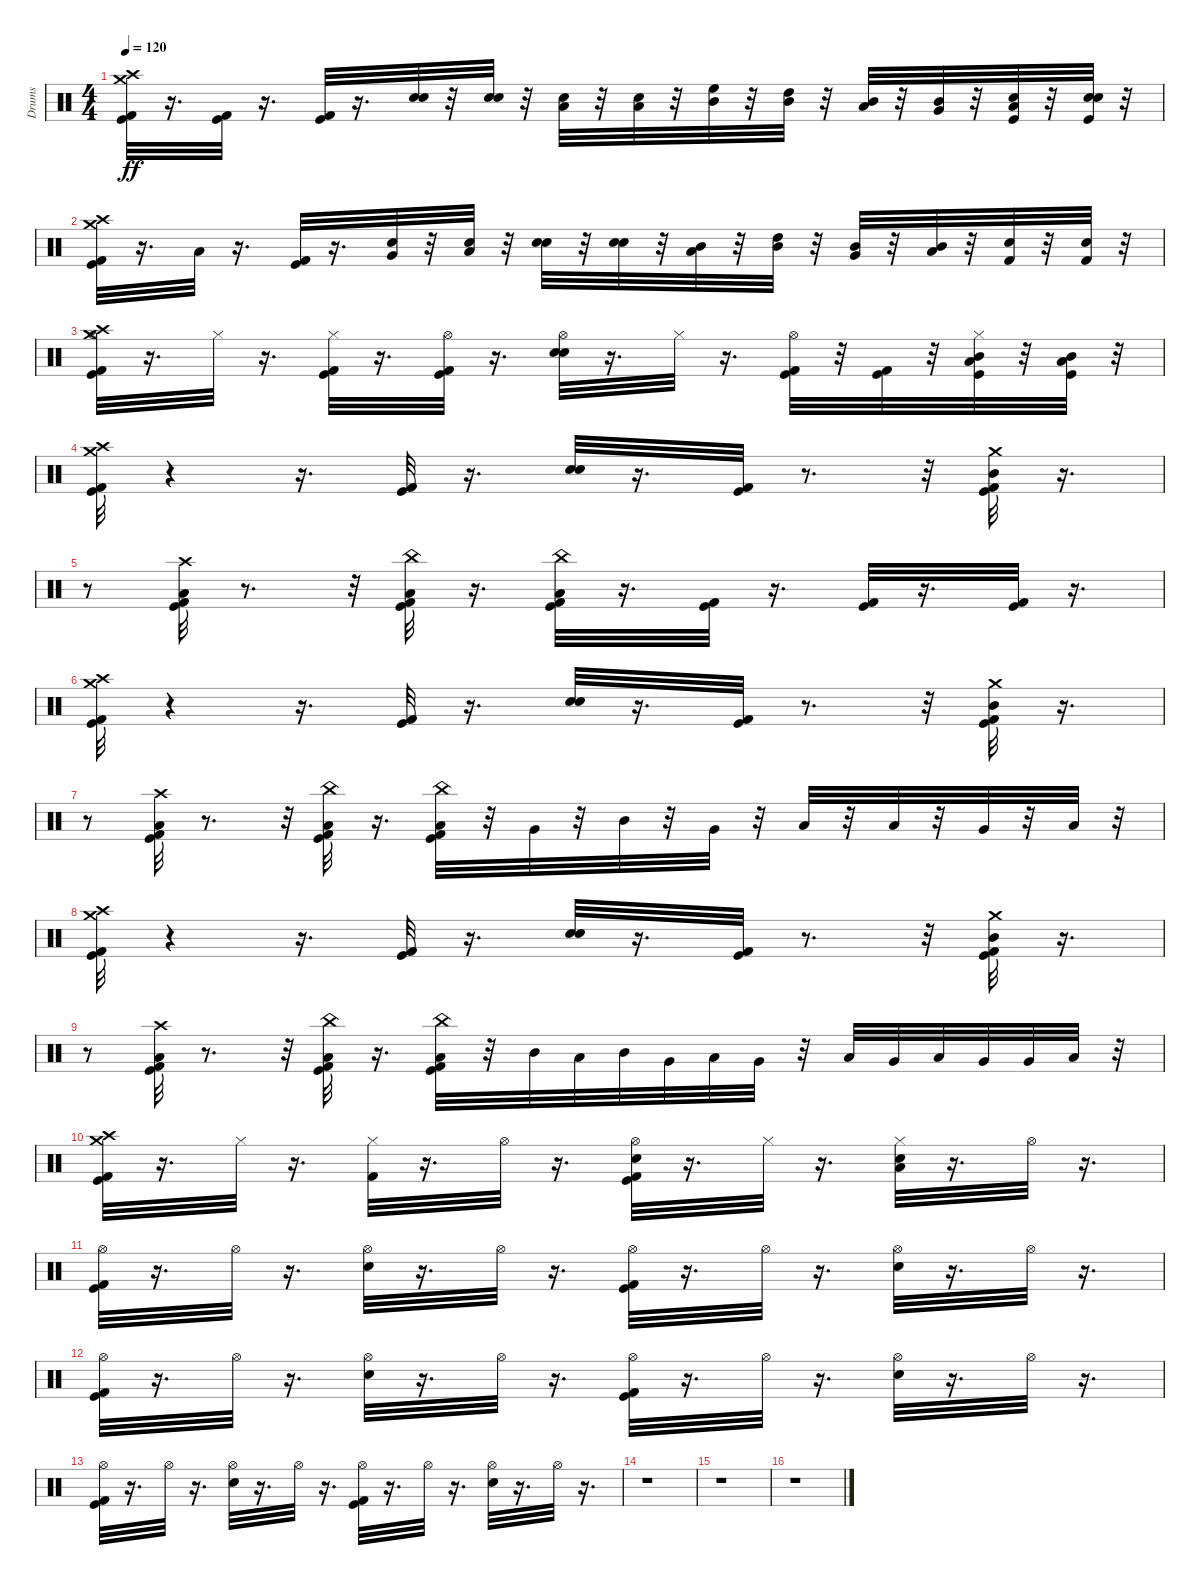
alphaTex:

\track ("Drums" "Drums") {instrument percussion}
\staff {score}
\articulation defaults
\ts (4 4)
\tempo 120
\clef neutral
\ks c
("Crash medium (hit)" "Crash high (hit)" "Kick (hit)" "Kick (hit) 2").32{dy ff} r.16{d} ("Kick (hit) 2" "Kick (hit)").32 r.16{d} ("Kick (hit) 2" "Kick (hit)").32 r.16{d} ("Electric Snare (hit)" "Snare (hit) 2").32 r.32 ("Snare (hit) 2" "Electric Snare (hit)").32 r.32 ("Low Floor Tom (hit)" "Snare (hit) 2").32 r.32 ("Low Floor Tom (hit)" "Snare (hit) 2").32 r.32 ("High Floor Tom (hit)" "Mid Tom (hit)").32 r.32 ("High Tom (hit)" "Mid Tom (hit)").32 r.32 ("Low Tom (hit)" "Mid Tom (hit)").32 r.32 ("Very Low Tom (hit)" "Mid Tom (hit)").32 r.32 ("Electric Snare (hit)" "Low Floor Tom (hit)" "Kick (hit)").32 r.32 ("Electric Snare (hit)" "Kick (hit)" "Snare (hit) 2").32 r.32 |
("Kick (hit)" "Kick (hit) 2" "Crash high (hit)" "Crash medium (hit)").32 r.16{d} "Low Floor Tom (hit)".32 r.16{d} ("Kick (hit)" "Kick (hit) 2").32 r.16{d} ("Snare (hit) 2" "Very Low Tom (hit)").32 r.32 ("Snare (hit) 2" "Low Floor Tom (hit)").32 r.32 ("Snare (hit) 2" "Electric Snare (hit)").32 r.32 ("Snare (hit) 2" "Electric Snare (hit)").32 r.32 ("Low Tom (hit)" "Mid Tom (hit)").32 r.32 ("High Tom (hit)" "Mid Tom (hit)").32 r.32 ("Very Low Tom (hit)" "Mid Tom (hit)").32 r.32 ("Mid Tom (hit)" "Low Floor Tom (hit)").32 r.32 ("Kick (hit) 2" "Electric Snare (hit)").32 r.32 ("Electric Snare (hit)" "Kick (hit) 2").32 r.32 |
("Crash medium (hit)" "Crash high (hit)" "Hi-Hat (open)" "Kick (hit) 2" "Kick (hit)").32 r.16{d} "Hi-Hat (closed)".32 r.16{d} ("Kick (hit) 2" "Kick (hit)" "Hi-Hat (closed)").32 r.16{d} ("Kick (hit)" "Kick (hit) 2" "Hi-Hat (open)").32 r.16{d} ("Hi-Hat (open)" "Electric Snare (hit)" "Snare (hit) 2").32 r.16{d} "Hi-Hat (closed)".32 r.16{d} ("Hi-Hat (open)" "Kick (hit)" "Kick (hit) 2").32 r.32 ("Kick (hit) 2" "Kick (hit)").32 r.32 ("Hi-Hat (closed)" "Kick (hit)" "Low Floor Tom (hit)" "Mid Tom (hit)").32 r.32 ("Low Floor Tom (hit)" "Kick (hit)" "Mid Tom (hit)").32 r.32 |
("Crash high (hit)" "Kick (hit)" "Kick (hit) 2" "Crash medium (hit)").32 r.4 r.16{d} ("Kick (hit) 2" "Kick (hit)").32 r.16{d} ("Electric Snare (hit)" "Snare (hit) 2").32 r.16{d} ("Kick (hit) 2" "Kick (hit)").32 r.8{d} r.32 ("Crash medium (hit)" "Kick (hit) 2" "Mid Tom (hit)" "Kick (hit)").32 r.16{d} |
r.8 ("Low Tom (hit)" "Kick (hit) 2" "Crash high (hit)" "Kick (hit)").32 r.8{d} r.32 ("Kick (hit) 2" "Kick (hit)" "China (hit)" "Low Floor Tom (hit)").32 r.16{d} ("Low Floor Tom (hit)" "China (hit)" "Kick (hit)" "Kick (hit) 2").32 r.16{d} ("Kick (hit)" "Kick (hit) 2").32 r.16{d} ("Kick (hit)" "Kick (hit) 2").32 r.16{d} ("Kick (hit) 2" "Kick (hit)").32 r.16{d} |
("Kick (hit)" "Crash high (hit)" "Crash medium (hit)" "Kick (hit) 2").32 r.4 r.16{d} ("Kick (hit)" "Kick (hit) 2").32 r.16{d} ("Snare (hit) 2" "Electric Snare (hit)").32 r.16{d} ("Kick (hit) 2" "Kick (hit)").32 r.8{d} r.32 ("Kick (hit)" "Kick (hit) 2" "Crash medium (hit)" "Mid Tom (hit)").32 r.16{d} |
r.8 ("Kick (hit)" "Crash high (hit)" "Kick (hit) 2" "Low Tom (hit)").32 r.8{d} r.32 ("Kick (hit) 2" "China (hit)" "Low Floor Tom (hit)" "Kick (hit)").32 r.16{d} ("Kick (hit)" "Kick (hit) 2" "China (hit)" "Low Floor Tom (hit)").32 r.32 "Very Low Tom (hit)".32 r.32 "Mid Tom (hit)".32 r.32 "Very Low Tom (hit)".32 r.32 "Low Tom (hit)".32 r.32 "Low Floor Tom (hit)".32 r.32 "Very Low Tom (hit)".32 r.32 "Low Floor Tom (hit)".32 r.32 |
("Kick (hit)" "Kick (hit) 2" "Crash medium (hit)" "Crash high (hit)").32 r.4 r.16{d} ("Kick (hit)" "Kick (hit) 2").32 r.16{d} ("Snare (hit) 2" "Electric Snare (hit)").32 r.16{d} ("Kick (hit) 2" "Kick (hit)").32 r.8{d} r.32 ("Kick (hit)" "Kick (hit) 2" "Mid Tom (hit)" "Crash medium (hit)").32 r.16{d} |
r.8 ("Low Tom (hit)" "Kick (hit) 2" "Crash high (hit)" "Kick (hit)").32 r.8{d} r.32 ("Kick (hit)" "Kick (hit) 2" "China (hit)" "Low Floor Tom (hit)").32 r.16{d} ("China (hit)" "Kick (hit) 2" "Low Floor Tom (hit)" "Kick (hit)").32 r.32 "Mid Tom (hit)".32 "Low Tom (hit)".32 "Mid Tom (hit)".32 "Very Low Tom (hit)".32 "Low Tom (hit)".32 "Very Low Tom (hit)".32 r.32 "Low Tom (hit)".32 "Very Low Tom (hit)".32 "Low Floor Tom (hit)".32 "Very Low Tom (hit)".32 "Very Low Tom (hit)".32 "Low Floor Tom (hit)".32 r.32 |
("Kick (hit) 2" "Crash high (hit)" "Kick (hit)" "Crash medium (hit)").32 r.16{d} "Hi-Hat (closed)".32 r.16{d} ("Kick (hit) 2" "Hi-Hat (closed)").32 r.16{d} "Hi-Hat (open)".32 r.16{d} ("Kick (hit)" "Hi-Hat (open)" "Electric Snare (hit)" "Kick (hit) 2").32 r.16{d} "Hi-Hat (closed)".32 r.16{d} ("Electric Snare (hit)" "Hi-Hat (closed)" "Low Floor Tom (hit)").32 r.16{d} "Hi-Hat (open)".32 r.16{d} |
("Kick (hit)" "Hi-Hat (open)" "Kick (hit) 2").32 r.16{d} "Hi-Hat (open)".32{volume 14} r.16{d} ("Electric Snare (hit)" "Hi-Hat (open)").32{volume 13} r.16{d} "Hi-Hat (open)".32{volume 13} r.16{d} ("Hi-Hat (open)" "Kick (hit)" "Kick (hit) 2").32{volume 12} r.16{d} "Hi-Hat (open)".32{volume 11} r.16{d} ("Hi-Hat (open)" "Electric Snare (hit)").32{volume 10} r.16{d} "Hi-Hat (open)".32{volume 10} r.16{d} |
("Kick (hit)" "Kick (hit) 2" "Hi-Hat (open)").32{volume 9} r.16{d} "Hi-Hat (open)".32{volume 9} r.16{d} ("Electric Snare (hit)" "Hi-Hat (open)").32{volume 8} r.16{d} "Hi-Hat (open)".32{volume 8} r.16{d} ("Kick (hit)" "Hi-Hat (open)" "Kick (hit) 2").32{volume 8} r.16{d} "Hi-Hat (open)".32{volume 7} r.16{d} ("Hi-Hat (open)" "Electric Snare (hit)").32{volume 7} r.16{d} "Hi-Hat (open)".32{volume 6} r.16{d} |
("Kick (hit)" "Hi-Hat (open)" "Kick (hit) 2").32{volume 6} r.16{d} "Hi-Hat (open)".32{volume 6} r.16{d} ("Electric Snare (hit)" "Hi-Hat (open)").32{volume 6} r.16{d} "Hi-Hat (open)".32{volume 5} r.16{d} ("Kick (hit) 2" "Kick (hit)" "Hi-Hat (open)").32{volume 5} r.16{d} "Hi-Hat (open)".32{volume 5} r.16{d} ("Electric Snare (hit)" "Hi-Hat (open)").32{volume 4} r.16{d} "Hi-Hat (open)".32{volume 4} r.16{d} |
r.1 |
r.1 |
r.1
